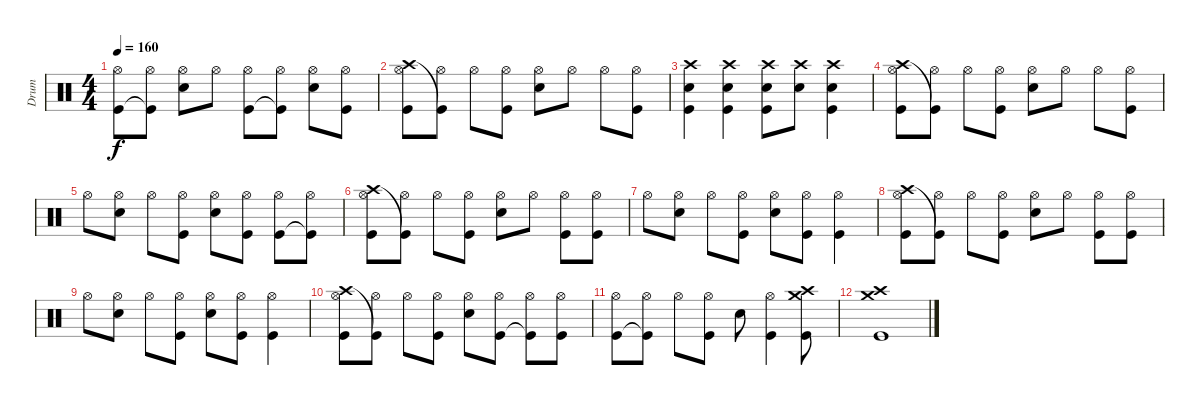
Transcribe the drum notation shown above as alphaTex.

\track ("Drum" "Drum") {instrument percussion}
\staff {score}
\articulation defaults
\ts (4 4)
\tempo 160
\clef neutral
\ks c
("Hi-Hat (open)" "Kick (hit)").8{dy f} ("Hi-Hat (open)" "Kick (hit)"{t}).8 ("Hi-Hat (open)" "Snare (hit) 2").8 "Hi-Hat (open)".8 ("Hi-Hat (open)" "Kick (hit)").8 ("Hi-Hat (open)" "Kick (hit)"{t}).8 ("Hi-Hat (open)" "Snare (hit) 2").8 ("Hi-Hat (open)" "Kick (hit)").8 |
("Hi-Hat (open)" "Crash high (hit)" "Kick (hit)").8 ("Hi-Hat (open)" "Kick (hit)"{t}).8 "Hi-Hat (open)".8 ("Hi-Hat (open)" "Kick (hit)").8 ("Hi-Hat (open)" "Snare (hit) 2").8 "Hi-Hat (open)".8 "Hi-Hat (open)".8 ("Hi-Hat (open)" "Kick (hit)").8 |
("Crash high (hit)" "Snare (hit) 2" "Kick (hit)").4 ("Crash high (hit)" "Snare (hit) 2" "Kick (hit)").4 ("Crash high (hit)" "Snare (hit) 2" "Kick (hit)").8 ("Crash high (hit)" "Snare (hit) 2").8 ("Crash high (hit)" "Snare (hit) 2" "Kick (hit)").4 |
("Hi-Hat (open)" "Crash high (hit)" "Kick (hit)").8 ("Hi-Hat (open)" "Kick (hit)"{t}).8 "Hi-Hat (open)".8 ("Hi-Hat (open)" "Kick (hit)").8 ("Hi-Hat (open)" "Snare (hit) 2").8 "Hi-Hat (open)".8 "Hi-Hat (open)".8 ("Hi-Hat (open)" "Kick (hit)").8 |
"Hi-Hat (open)".8 ("Hi-Hat (open)" "Snare (hit) 2").8 "Hi-Hat (open)".8 ("Hi-Hat (open)" "Kick (hit)").8 ("Hi-Hat (open)" "Snare (hit) 2").8 ("Hi-Hat (open)" "Kick (hit)").8 ("Hi-Hat (open)" "Kick (hit)").8 ("Hi-Hat (open)" "Kick (hit)"{t}).8 |
("Hi-Hat (open)" "Crash high (hit)" "Kick (hit)").8 ("Hi-Hat (open)" "Kick (hit)"{t}).8 "Hi-Hat (open)".8 ("Hi-Hat (open)" "Kick (hit)").8 ("Hi-Hat (open)" "Snare (hit) 2").8 "Hi-Hat (open)".8 ("Hi-Hat (open)" "Kick (hit)").8 ("Hi-Hat (open)" "Kick (hit)").8 |
"Hi-Hat (open)".8 ("Hi-Hat (open)" "Snare (hit) 2").8 "Hi-Hat (open)".8 ("Hi-Hat (open)" "Kick (hit)").8 ("Hi-Hat (open)" "Snare (hit) 2").8 ("Hi-Hat (open)" "Kick (hit)").8 ("Hi-Hat (open)" "Kick (hit)").4 |
("Hi-Hat (open)" "Crash high (hit)" "Kick (hit)").8 ("Hi-Hat (open)" "Kick (hit)"{t}).8 "Hi-Hat (open)".8 ("Hi-Hat (open)" "Kick (hit)").8 ("Hi-Hat (open)" "Snare (hit) 2").8 "Hi-Hat (open)".8 ("Hi-Hat (open)" "Kick (hit)").8 ("Hi-Hat (open)" "Kick (hit)").8 |
"Hi-Hat (open)".8 ("Hi-Hat (open)" "Snare (hit) 2").8 "Hi-Hat (open)".8 ("Hi-Hat (open)" "Kick (hit)").8 ("Hi-Hat (open)" "Snare (hit) 2").8 ("Hi-Hat (open)" "Kick (hit)").8 ("Hi-Hat (open)" "Kick (hit)").4 |
("Hi-Hat (open)" "Crash high (hit)" "Kick (hit)").8 ("Hi-Hat (open)" "Kick (hit)"{t}).8 "Hi-Hat (open)".8 ("Hi-Hat (open)" "Kick (hit)").8 ("Hi-Hat (open)" "Snare (hit) 2").8 ("Hi-Hat (open)" "Kick (hit)").8 ("Hi-Hat (open)" "Kick (hit)"{t}).8 ("Hi-Hat (open)" "Kick (hit)").8 |
("Hi-Hat (open)" "Kick (hit)").8 ("Hi-Hat (open)" "Kick (hit)"{t}).8 "Hi-Hat (open)".8 ("Hi-Hat (open)" "Kick (hit)").8 "Snare (hit) 2".8 ("Hi-Hat (open)" "Kick (hit)").4 ("Crash high (hit)" "Crash medium (hit)" "Kick (hit)").8 |
("Crash high (hit)" "Crash medium (hit)" "Kick (hit)").1
